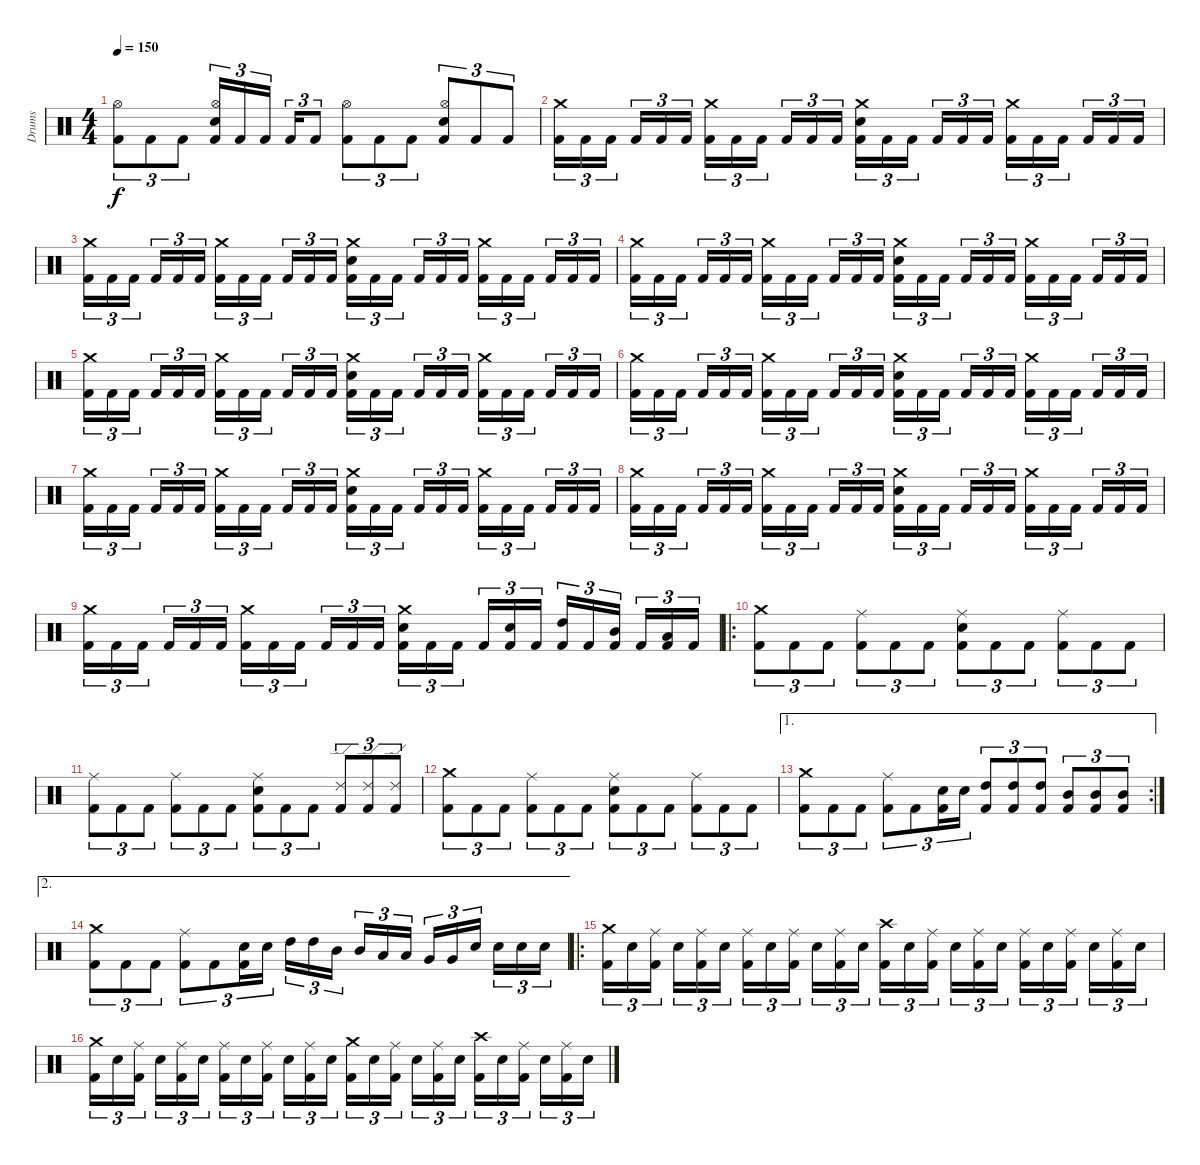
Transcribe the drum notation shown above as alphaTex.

\track ("Drums" "Drums") {instrument percussion}
\staff {score}
\articulation defaults
\ts (4 4)
\tempo 150
\clef neutral
\ks c
("Kick (hit) 2" "Hi-Hat (open)").8{tu (3 2) dy f} "Kick (hit) 2".8{tu (3 2)} "Kick (hit) 2".8{tu (3 2)} ("Kick (hit) 2" "Electric Snare (hit)" "Hi-Hat (open)").16{tu (3 2)} "Kick (hit) 2".16{tu (3 2)} "Kick (hit) 2".16{tu (3 2)} "Kick (hit) 2".16{tu (3 2)} "Kick (hit) 2".8{tu (3 2)} ("Kick (hit) 2" "Hi-Hat (open)").8{tu (3 2)} "Kick (hit) 2".8{tu (3 2)} "Kick (hit) 2".8{tu (3 2)} ("Kick (hit) 2" "Electric Snare (hit)" "Hi-Hat (open)").8{tu (3 2)} "Kick (hit) 2".8{tu (3 2)} "Kick (hit) 2".8{tu (3 2)} |
("Kick (hit) 2" "Crash medium (hit)").16{tu (3 2)} "Kick (hit) 2".16{tu (3 2)} "Kick (hit) 2".16{tu (3 2)} "Kick (hit) 2".16{tu (3 2)} "Kick (hit) 2".16{tu (3 2)} "Kick (hit) 2".16{tu (3 2)} ("Kick (hit) 2" "Crash medium (hit)").16{tu (3 2)} "Kick (hit) 2".16{tu (3 2)} "Kick (hit) 2".16{tu (3 2)} "Kick (hit) 2".16{tu (3 2)} "Kick (hit) 2".16{tu (3 2)} "Kick (hit) 2".16{tu (3 2)} ("Kick (hit) 2" "Electric Snare (hit)" "Crash medium (hit)").16{tu (3 2)} "Kick (hit) 2".16{tu (3 2)} "Kick (hit) 2".16{tu (3 2)} "Kick (hit) 2".16{tu (3 2)} "Kick (hit) 2".16{tu (3 2)} "Kick (hit) 2".16{tu (3 2)} ("Kick (hit) 2" "Crash medium (hit)").16{tu (3 2)} "Kick (hit) 2".16{tu (3 2)} "Kick (hit) 2".16{tu (3 2)} "Kick (hit) 2".16{tu (3 2)} "Kick (hit) 2".16{tu (3 2)} "Kick (hit) 2".16{tu (3 2)} |
("Kick (hit) 2" "Crash medium (hit)").16{tu (3 2)} "Kick (hit) 2".16{tu (3 2)} "Kick (hit) 2".16{tu (3 2)} "Kick (hit) 2".16{tu (3 2)} "Kick (hit) 2".16{tu (3 2)} "Kick (hit) 2".16{tu (3 2)} ("Kick (hit) 2" "Crash medium (hit)").16{tu (3 2)} "Kick (hit) 2".16{tu (3 2)} "Kick (hit) 2".16{tu (3 2)} "Kick (hit) 2".16{tu (3 2)} "Kick (hit) 2".16{tu (3 2)} "Kick (hit) 2".16{tu (3 2)} ("Kick (hit) 2" "Electric Snare (hit)" "Crash medium (hit)").16{tu (3 2)} "Kick (hit) 2".16{tu (3 2)} "Kick (hit) 2".16{tu (3 2)} "Kick (hit) 2".16{tu (3 2)} "Kick (hit) 2".16{tu (3 2)} "Kick (hit) 2".16{tu (3 2)} ("Kick (hit) 2" "Crash medium (hit)").16{tu (3 2)} "Kick (hit) 2".16{tu (3 2)} "Kick (hit) 2".16{tu (3 2)} "Kick (hit) 2".16{tu (3 2)} "Kick (hit) 2".16{tu (3 2)} "Kick (hit) 2".16{tu (3 2)} |
("Kick (hit) 2" "Crash medium (hit)").16{tu (3 2)} "Kick (hit) 2".16{tu (3 2)} "Kick (hit) 2".16{tu (3 2)} "Kick (hit) 2".16{tu (3 2)} "Kick (hit) 2".16{tu (3 2)} "Kick (hit) 2".16{tu (3 2)} ("Kick (hit) 2" "Crash medium (hit)").16{tu (3 2)} "Kick (hit) 2".16{tu (3 2)} "Kick (hit) 2".16{tu (3 2)} "Kick (hit) 2".16{tu (3 2)} "Kick (hit) 2".16{tu (3 2)} "Kick (hit) 2".16{tu (3 2)} ("Kick (hit) 2" "Electric Snare (hit)" "Crash medium (hit)").16{tu (3 2)} "Kick (hit) 2".16{tu (3 2)} "Kick (hit) 2".16{tu (3 2)} "Kick (hit) 2".16{tu (3 2)} "Kick (hit) 2".16{tu (3 2)} "Kick (hit) 2".16{tu (3 2)} ("Kick (hit) 2" "Crash medium (hit)").16{tu (3 2)} "Kick (hit) 2".16{tu (3 2)} "Kick (hit) 2".16{tu (3 2)} "Kick (hit) 2".16{tu (3 2)} "Kick (hit) 2".16{tu (3 2)} "Kick (hit) 2".16{tu (3 2)} |
("Kick (hit) 2" "Crash medium (hit)").16{tu (3 2)} "Kick (hit) 2".16{tu (3 2)} "Kick (hit) 2".16{tu (3 2)} "Kick (hit) 2".16{tu (3 2)} "Kick (hit) 2".16{tu (3 2)} "Kick (hit) 2".16{tu (3 2)} ("Kick (hit) 2" "Crash medium (hit)").16{tu (3 2)} "Kick (hit) 2".16{tu (3 2)} "Kick (hit) 2".16{tu (3 2)} "Kick (hit) 2".16{tu (3 2)} "Kick (hit) 2".16{tu (3 2)} "Kick (hit) 2".16{tu (3 2)} ("Kick (hit) 2" "Electric Snare (hit)" "Crash medium (hit)").16{tu (3 2)} "Kick (hit) 2".16{tu (3 2)} "Kick (hit) 2".16{tu (3 2)} "Kick (hit) 2".16{tu (3 2)} "Kick (hit) 2".16{tu (3 2)} "Kick (hit) 2".16{tu (3 2)} ("Kick (hit) 2" "Crash medium (hit)").16{tu (3 2)} "Kick (hit) 2".16{tu (3 2)} "Kick (hit) 2".16{tu (3 2)} "Kick (hit) 2".16{tu (3 2)} "Kick (hit) 2".16{tu (3 2)} "Kick (hit) 2".16{tu (3 2)} |
("Kick (hit) 2" "Crash medium (hit)").16{tu (3 2)} "Kick (hit) 2".16{tu (3 2)} "Kick (hit) 2".16{tu (3 2)} "Kick (hit) 2".16{tu (3 2)} "Kick (hit) 2".16{tu (3 2)} "Kick (hit) 2".16{tu (3 2)} ("Kick (hit) 2" "Crash medium (hit)").16{tu (3 2)} "Kick (hit) 2".16{tu (3 2)} "Kick (hit) 2".16{tu (3 2)} "Kick (hit) 2".16{tu (3 2)} "Kick (hit) 2".16{tu (3 2)} "Kick (hit) 2".16{tu (3 2)} ("Kick (hit) 2" "Electric Snare (hit)" "Crash medium (hit)").16{tu (3 2)} "Kick (hit) 2".16{tu (3 2)} "Kick (hit) 2".16{tu (3 2)} "Kick (hit) 2".16{tu (3 2)} "Kick (hit) 2".16{tu (3 2)} "Kick (hit) 2".16{tu (3 2)} ("Kick (hit) 2" "Crash medium (hit)").16{tu (3 2)} "Kick (hit) 2".16{tu (3 2)} "Kick (hit) 2".16{tu (3 2)} "Kick (hit) 2".16{tu (3 2)} "Kick (hit) 2".16{tu (3 2)} "Kick (hit) 2".16{tu (3 2)} |
("Kick (hit) 2" "Crash medium (hit)").16{tu (3 2)} "Kick (hit) 2".16{tu (3 2)} "Kick (hit) 2".16{tu (3 2)} "Kick (hit) 2".16{tu (3 2)} "Kick (hit) 2".16{tu (3 2)} "Kick (hit) 2".16{tu (3 2)} ("Kick (hit) 2" "Crash medium (hit)").16{tu (3 2)} "Kick (hit) 2".16{tu (3 2)} "Kick (hit) 2".16{tu (3 2)} "Kick (hit) 2".16{tu (3 2)} "Kick (hit) 2".16{tu (3 2)} "Kick (hit) 2".16{tu (3 2)} ("Kick (hit) 2" "Electric Snare (hit)" "Crash medium (hit)").16{tu (3 2)} "Kick (hit) 2".16{tu (3 2)} "Kick (hit) 2".16{tu (3 2)} "Kick (hit) 2".16{tu (3 2)} "Kick (hit) 2".16{tu (3 2)} "Kick (hit) 2".16{tu (3 2)} ("Kick (hit) 2" "Crash medium (hit)").16{tu (3 2)} "Kick (hit) 2".16{tu (3 2)} "Kick (hit) 2".16{tu (3 2)} "Kick (hit) 2".16{tu (3 2)} "Kick (hit) 2".16{tu (3 2)} "Kick (hit) 2".16{tu (3 2)} |
("Kick (hit) 2" "Crash medium (hit)").16{tu (3 2)} "Kick (hit) 2".16{tu (3 2)} "Kick (hit) 2".16{tu (3 2)} "Kick (hit) 2".16{tu (3 2)} "Kick (hit) 2".16{tu (3 2)} "Kick (hit) 2".16{tu (3 2)} ("Kick (hit) 2" "Crash medium (hit)").16{tu (3 2)} "Kick (hit) 2".16{tu (3 2)} "Kick (hit) 2".16{tu (3 2)} "Kick (hit) 2".16{tu (3 2)} "Kick (hit) 2".16{tu (3 2)} "Kick (hit) 2".16{tu (3 2)} ("Kick (hit) 2" "Electric Snare (hit)" "Crash medium (hit)").16{tu (3 2)} "Kick (hit) 2".16{tu (3 2)} "Kick (hit) 2".16{tu (3 2)} "Kick (hit) 2".16{tu (3 2)} "Kick (hit) 2".16{tu (3 2)} "Kick (hit) 2".16{tu (3 2)} ("Kick (hit) 2" "Crash medium (hit)").16{tu (3 2)} "Kick (hit) 2".16{tu (3 2)} "Kick (hit) 2".16{tu (3 2)} "Kick (hit) 2".16{tu (3 2)} "Kick (hit) 2".16{tu (3 2)} "Kick (hit) 2".16{tu (3 2)} |
("Kick (hit) 2" "Crash medium (hit)").16{tu (3 2)} "Kick (hit) 2".16{tu (3 2)} "Kick (hit) 2".16{tu (3 2)} "Kick (hit) 2".16{tu (3 2)} "Kick (hit) 2".16{tu (3 2)} "Kick (hit) 2".16{tu (3 2)} ("Kick (hit) 2" "Crash medium (hit)").16{tu (3 2)} "Kick (hit) 2".16{tu (3 2)} "Kick (hit) 2".16{tu (3 2)} "Kick (hit) 2".16{tu (3 2)} "Kick (hit) 2".16{tu (3 2)} "Kick (hit) 2".16{tu (3 2)} ("Kick (hit) 2" "Electric Snare (hit)" "Crash medium (hit)").16{tu (3 2)} "Kick (hit) 2".16{tu (3 2)} "Kick (hit) 2".16{tu (3 2)} "Kick (hit) 2".16{tu (3 2)} ("Kick (hit) 2" "Electric Snare (hit)").16{tu (3 2)} "Kick (hit) 2".16{tu (3 2)} ("Kick (hit) 2" "High Tom (hit)").16{tu (3 2)} "Kick (hit) 2".16{tu (3 2)} ("Kick (hit) 2" "Mid Tom (hit)").16{tu (3 2)} "Kick (hit) 2".16{tu (3 2)} ("Kick (hit) 2" "Low Tom (hit)").16{tu (3 2)} "Kick (hit) 2".16{tu (3 2)} |
\ro
("Kick (hit) 2" "Crash medium (hit)").8{tu (3 2)} "Kick (hit) 2".8{tu (3 2)} "Kick (hit) 2".8{tu (3 2)} ("Kick (hit) 2" "Ride (middle)").8{tu (3 2)} "Kick (hit) 2".8{tu (3 2)} "Kick (hit) 2".8{tu (3 2)} ("Kick (hit) 2" "Electric Snare (hit)" "Ride (middle)").8{tu (3 2)} "Kick (hit) 2".8{tu (3 2)} "Kick (hit) 2".8{tu (3 2)} ("Kick (hit) 2" "Ride (middle)").8{tu (3 2)} "Kick (hit) 2".8{tu (3 2)} "Kick (hit) 2".8{tu (3 2)} |
("Kick (hit) 2" "Ride (middle)").8{tu (3 2)} "Kick (hit) 2".8{tu (3 2)} "Kick (hit) 2".8{tu (3 2)} ("Kick (hit) 2" "Ride (middle)").8{tu (3 2)} "Kick (hit) 2".8{tu (3 2)} "Kick (hit) 2".8{tu (3 2)} ("Kick (hit) 2" "Electric Snare (hit)" "Ride (middle)").8{tu (3 2)} "Kick (hit) 2".8{tu (3 2)} "Kick (hit) 2".8{tu (3 2)} ("Kick (hit) 2" "Ride (edge) 2").8{tu (3 2)} ("Kick (hit) 2" "Ride (edge) 2").8{tu (3 2)} ("Kick (hit) 2" "Ride (edge) 2").8{tu (3 2)} |
("Kick (hit) 2" "Crash medium (hit)").8{tu (3 2)} "Kick (hit) 2".8{tu (3 2)} "Kick (hit) 2".8{tu (3 2)} ("Kick (hit) 2" "Ride (middle)").8{tu (3 2)} "Kick (hit) 2".8{tu (3 2)} "Kick (hit) 2".8{tu (3 2)} ("Kick (hit) 2" "Electric Snare (hit)" "Ride (middle)").8{tu (3 2)} "Kick (hit) 2".8{tu (3 2)} "Kick (hit) 2".8{tu (3 2)} ("Kick (hit) 2" "Ride (middle)").8{tu (3 2)} "Kick (hit) 2".8{tu (3 2)} "Kick (hit) 2".8{tu (3 2)} |
\ae 1
\rc 2
("Kick (hit) 2" "Crash medium (hit)").8{tu (3 2)} "Kick (hit) 2".8{tu (3 2)} "Kick (hit) 2".8{tu (3 2)} ("Kick (hit) 2" "Ride (middle)").8{tu (3 2)} "Kick (hit) 2".8{tu (3 2)} ("Kick (hit) 2" "Electric Snare (hit)").16{tu (3 2)} "Electric Snare (hit)".16{tu (3 2)} ("Kick (hit) 2" "High Tom (hit)").8{tu (3 2)} ("Kick (hit) 2" "High Tom (hit)").8{tu (3 2)} ("Kick (hit) 2" "High Tom (hit)").8{tu (3 2)} ("Kick (hit) 2" "Mid Tom (hit)").8{tu (3 2)} ("Kick (hit) 2" "Mid Tom (hit)").8{tu (3 2)} ("Kick (hit) 2" "Mid Tom (hit)").8{tu (3 2)} |
\ae 2
("Kick (hit) 2" "Crash medium (hit)").8{tu (3 2)} "Kick (hit) 2".8{tu (3 2)} "Kick (hit) 2".8{tu (3 2)} ("Kick (hit) 2" "Ride (middle)").8{tu (3 2)} "Kick (hit) 2".8{tu (3 2)} ("Kick (hit) 2" "Electric Snare (hit)").16{tu (3 2)} "Electric Snare (hit)".16{tu (3 2)} "High Tom (hit)".16{tu (3 2)} "High Tom (hit)".16{tu (3 2)} "Mid Tom (hit)".16{tu (3 2)} "Mid Tom (hit)".16{tu (3 2)} "Low Tom (hit)".16{tu (3 2)} "Low Tom (hit)".16{tu (3 2)} "Very Low Tom (hit)".16{tu (3 2)} "Very Low Tom (hit)".16{tu (3 2)} "Electric Snare (hit)".16{tu (3 2)} "Electric Snare (hit)".16{tu (3 2)} "Electric Snare (hit)".16{tu (3 2)} "Electric Snare (hit)".16{tu (3 2)} |
\ro
("Kick (hit) 2" "Crash medium (hit)").16{tu (3 2)} "Electric Snare (hit)".16{tu (3 2)} ("Kick (hit) 2" "Ride (middle)").16{tu (3 2)} "Electric Snare (hit)".16{tu (3 2)} ("Kick (hit) 2" "Ride (middle)").16{tu (3 2)} "Electric Snare (hit)".16{tu (3 2)} ("Kick (hit) 2" "Ride (middle)").16{tu (3 2)} "Electric Snare (hit)".16{tu (3 2)} ("Kick (hit) 2" "Ride (middle)").16{tu (3 2)} "Electric Snare (hit)".16{tu (3 2)} ("Kick (hit) 2" "Ride (middle)").16{tu (3 2)} "Electric Snare (hit)".16{tu (3 2)} ("Kick (hit) 2" "Crash high (hit)").16{tu (3 2)} "Electric Snare (hit)".16{tu (3 2)} ("Kick (hit) 2" "Ride (middle)").16{tu (3 2)} "Electric Snare (hit)".16{tu (3 2)} ("Kick (hit) 2" "Ride (middle)").16{tu (3 2)} "Electric Snare (hit)".16{tu (3 2)} ("Kick (hit) 2" "Ride (middle)").16{tu (3 2)} "Electric Snare (hit)".16{tu (3 2)} ("Kick (hit) 2" "Ride (middle)").16{tu (3 2)} "Electric Snare (hit)".16{tu (3 2)} ("Kick (hit) 2" "Ride (middle)").16{tu (3 2)} "Electric Snare (hit)".16{tu (3 2)} |
("Kick (hit) 2" "Crash medium (hit)").16{tu (3 2)} "Electric Snare (hit)".16{tu (3 2)} ("Kick (hit) 2" "Ride (middle)").16{tu (3 2)} "Electric Snare (hit)".16{tu (3 2)} ("Kick (hit) 2" "Ride (middle)").16{tu (3 2)} "Electric Snare (hit)".16{tu (3 2)} ("Kick (hit) 2" "Ride (middle)").16{tu (3 2)} "Electric Snare (hit)".16{tu (3 2)} ("Kick (hit) 2" "Ride (middle)").16{tu (3 2)} "Electric Snare (hit)".16{tu (3 2)} ("Kick (hit) 2" "Ride (middle)").16{tu (3 2)} "Electric Snare (hit)".16{tu (3 2)} ("Kick (hit) 2" "Crash medium (hit)").16{tu (3 2)} "Electric Snare (hit)".16{tu (3 2)} ("Kick (hit) 2" "Ride (middle)").16{tu (3 2)} "Electric Snare (hit)".16{tu (3 2)} ("Kick (hit) 2" "Ride (middle)").16{tu (3 2)} "Electric Snare (hit)".16{tu (3 2)} ("Kick (hit) 2" "Crash high (hit)").16{tu (3 2)} "Electric Snare (hit)".16{tu (3 2)} ("Kick (hit) 2" "Ride (middle)").16{tu (3 2)} "Electric Snare (hit)".16{tu (3 2)} ("Kick (hit) 2" "Ride (middle)").16{tu (3 2)} "Electric Snare (hit)".16{tu (3 2)}
